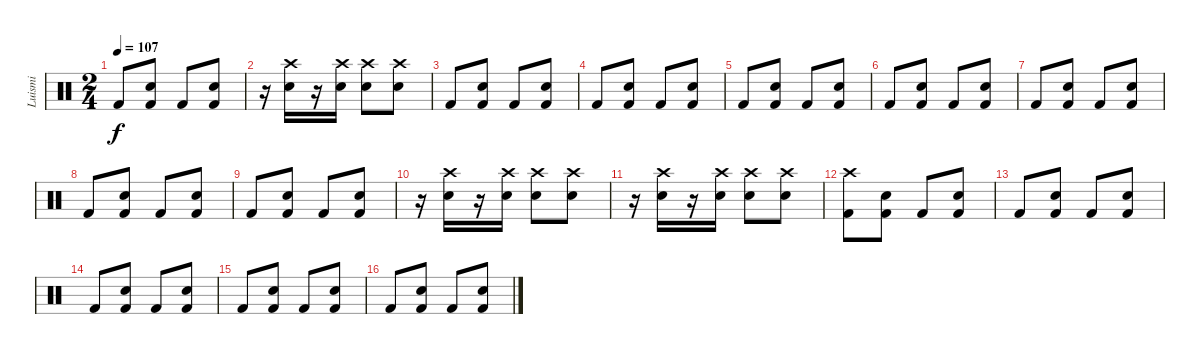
\track ("Luismi" "Luismi") {instrument percussion}
\staff {score}
\articulation defaults
\ts (2 4)
\tempo 107
\clef neutral
\ks c "Kick (hit) 2".8{dy f}
("Snare (hit) 2" "Kick (hit) 2").8 "Kick (hit) 2".8 ("Snare (hit) 2" "Kick (hit) 2").8 |
r.16 ("Crash high (hit)" "Snare (hit) 2").16 r.16 ("Crash high (hit)" "Snare (hit) 2").16 ("Crash high (hit)" "Snare (hit) 2").8 ("Crash high (hit)" "Snare (hit) 2").8 |
"Kick (hit) 2".8 ("Snare (hit) 2" "Kick (hit) 2").8 "Kick (hit) 2".8 ("Snare (hit) 2" "Kick (hit) 2").8 |
"Kick (hit) 2".8 ("Snare (hit) 2" "Kick (hit) 2").8 "Kick (hit) 2".8 ("Snare (hit) 2" "Kick (hit) 2").8 |
"Kick (hit) 2".8 ("Snare (hit) 2" "Kick (hit) 2").8 "Kick (hit) 2".8 ("Snare (hit) 2" "Kick (hit) 2").8 |
"Kick (hit) 2".8 ("Snare (hit) 2" "Kick (hit) 2").8 "Kick (hit) 2".8 ("Snare (hit) 2" "Kick (hit) 2").8 |
"Kick (hit) 2".8 ("Snare (hit) 2" "Kick (hit) 2").8 "Kick (hit) 2".8 ("Snare (hit) 2" "Kick (hit) 2").8 |
"Kick (hit) 2".8 ("Snare (hit) 2" "Kick (hit) 2").8 "Kick (hit) 2".8 ("Snare (hit) 2" "Kick (hit) 2").8 |
"Kick (hit) 2".8 ("Snare (hit) 2" "Kick (hit) 2").8 "Kick (hit) 2".8 ("Snare (hit) 2" "Kick (hit) 2").8 |
r.16 ("Crash high (hit)" "Snare (hit) 2").16 r.16 ("Crash high (hit)" "Snare (hit) 2").16 ("Crash high (hit)" "Snare (hit) 2").8 ("Crash high (hit)" "Snare (hit) 2").8 |
r.16 ("Crash high (hit)" "Snare (hit) 2").16 r.16 ("Crash high (hit)" "Snare (hit) 2").16 ("Crash high (hit)" "Snare (hit) 2").8 ("Crash high (hit)" "Snare (hit) 2").8 |
("Crash high (hit)" "Kick (hit) 2").8 ("Snare (hit) 2" "Kick (hit) 2").8 "Kick (hit) 2".8 ("Snare (hit) 2" "Kick (hit) 2").8 |
"Kick (hit) 2".8 ("Snare (hit) 2" "Kick (hit) 2").8 "Kick (hit) 2".8 ("Snare (hit) 2" "Kick (hit) 2").8 |
"Kick (hit) 2".8 ("Snare (hit) 2" "Kick (hit) 2").8 "Kick (hit) 2".8 ("Snare (hit) 2" "Kick (hit) 2").8 |
"Kick (hit) 2".8 ("Snare (hit) 2" "Kick (hit) 2").8 "Kick (hit) 2".8 ("Snare (hit) 2" "Kick (hit) 2").8 |
"Kick (hit) 2".8 ("Snare (hit) 2" "Kick (hit) 2").8 "Kick (hit) 2".8 ("Snare (hit) 2" "Kick (hit) 2").8
